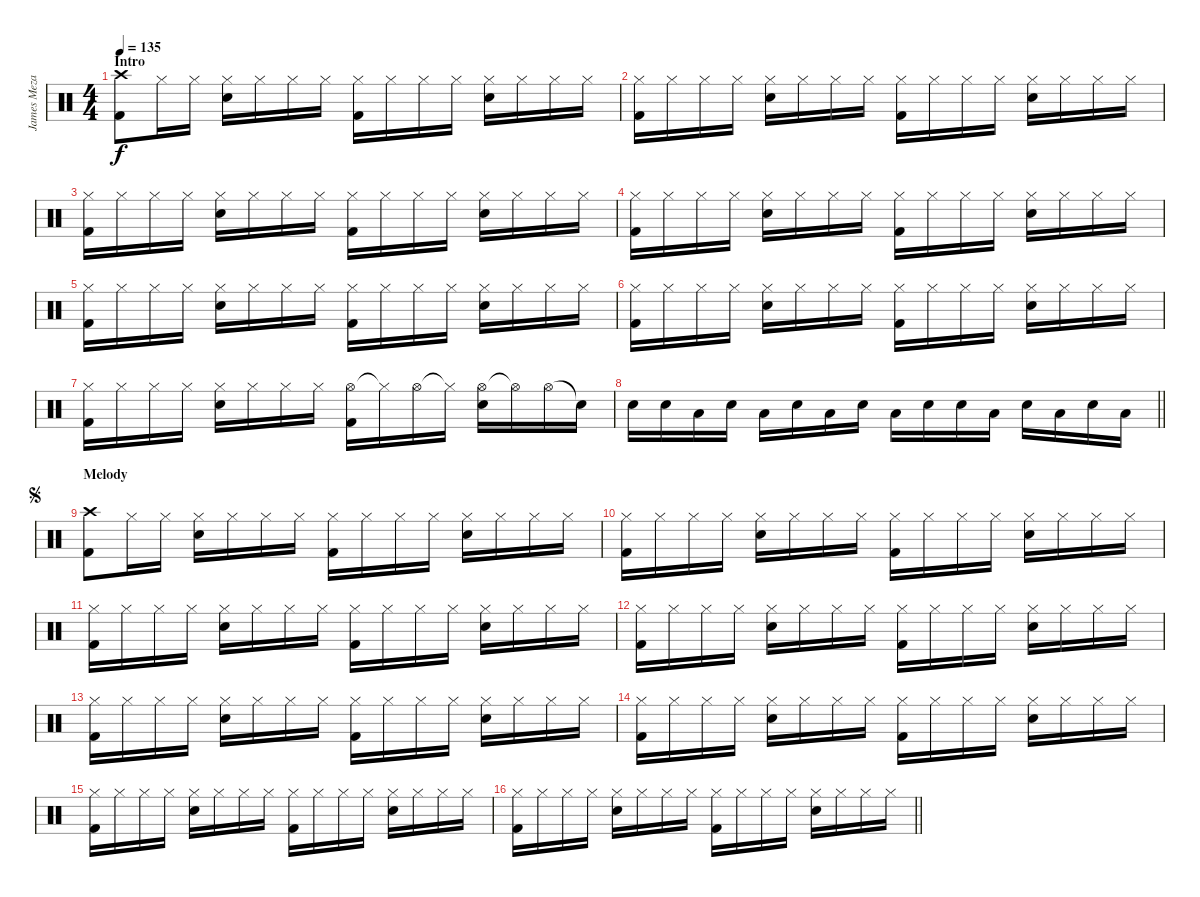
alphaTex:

\track ("James Meza - Drums" "James Meza") {instrument percussion}
\staff {score}
\articulation defaults
\ts (4 4)
\section ("" "Intro")
\tempo 135
\clef neutral
\ks c
("Crash high (hit)" "Kick (hit) 2").8{dy f} "Hi-Hat (closed)".16 "Hi-Hat (closed)".16 ("Hi-Hat (closed)" "Electric Snare (hit)").16 "Hi-Hat (closed)".16 "Hi-Hat (closed)".16 "Hi-Hat (closed)".16 ("Hi-Hat (closed)" "Kick (hit) 2").16 "Hi-Hat (closed)".16 "Hi-Hat (closed)".16 "Hi-Hat (closed)".16 ("Hi-Hat (closed)" "Electric Snare (hit)").16 "Hi-Hat (closed)".16 "Hi-Hat (closed)".16 "Hi-Hat (closed)".16 |
("Hi-Hat (closed)" "Kick (hit) 2").16 "Hi-Hat (closed)".16 "Hi-Hat (closed)".16 "Hi-Hat (closed)".16 ("Hi-Hat (closed)" "Electric Snare (hit)").16 "Hi-Hat (closed)".16 "Hi-Hat (closed)".16 "Hi-Hat (closed)".16 ("Hi-Hat (closed)" "Kick (hit) 2").16 "Hi-Hat (closed)".16 "Hi-Hat (closed)".16 "Hi-Hat (closed)".16 ("Hi-Hat (closed)" "Electric Snare (hit)").16 "Hi-Hat (closed)".16 "Hi-Hat (closed)".16 "Hi-Hat (closed)".16 |
("Hi-Hat (closed)" "Kick (hit) 2").16 "Hi-Hat (closed)".16 "Hi-Hat (closed)".16 "Hi-Hat (closed)".16 ("Hi-Hat (closed)" "Electric Snare (hit)").16 "Hi-Hat (closed)".16 "Hi-Hat (closed)".16 "Hi-Hat (closed)".16 ("Hi-Hat (closed)" "Kick (hit) 2").16 "Hi-Hat (closed)".16 "Hi-Hat (closed)".16 "Hi-Hat (closed)".16 ("Hi-Hat (closed)" "Electric Snare (hit)").16 "Hi-Hat (closed)".16 "Hi-Hat (closed)".16 "Hi-Hat (closed)".16 |
("Hi-Hat (closed)" "Kick (hit) 2").16 "Hi-Hat (closed)".16 "Hi-Hat (closed)".16 "Hi-Hat (closed)".16 ("Hi-Hat (closed)" "Electric Snare (hit)").16 "Hi-Hat (closed)".16 "Hi-Hat (closed)".16 "Hi-Hat (closed)".16 ("Hi-Hat (closed)" "Kick (hit) 2").16 "Hi-Hat (closed)".16 "Hi-Hat (closed)".16 "Hi-Hat (closed)".16 ("Hi-Hat (closed)" "Electric Snare (hit)").16 "Hi-Hat (closed)".16 "Hi-Hat (closed)".16 "Hi-Hat (closed)".16 |
("Hi-Hat (closed)" "Kick (hit) 2").16 "Hi-Hat (closed)".16 "Hi-Hat (closed)".16 "Hi-Hat (closed)".16 ("Hi-Hat (closed)" "Electric Snare (hit)").16 "Hi-Hat (closed)".16 "Hi-Hat (closed)".16 "Hi-Hat (closed)".16 ("Hi-Hat (closed)" "Kick (hit) 2").16 "Hi-Hat (closed)".16 "Hi-Hat (closed)".16 "Hi-Hat (closed)".16 ("Hi-Hat (closed)" "Electric Snare (hit)").16 "Hi-Hat (closed)".16 "Hi-Hat (closed)".16 "Hi-Hat (closed)".16 |
("Hi-Hat (closed)" "Kick (hit) 2").16 "Hi-Hat (closed)".16 "Hi-Hat (closed)".16 "Hi-Hat (closed)".16 ("Hi-Hat (closed)" "Electric Snare (hit)").16 "Hi-Hat (closed)".16 "Hi-Hat (closed)".16 "Hi-Hat (closed)".16 ("Hi-Hat (closed)" "Kick (hit) 2").16 "Hi-Hat (closed)".16 "Hi-Hat (closed)".16 "Hi-Hat (closed)".16 ("Hi-Hat (closed)" "Electric Snare (hit)").16 "Hi-Hat (closed)".16 "Hi-Hat (closed)".16 "Hi-Hat (closed)".16 |
("Hi-Hat (closed)" "Kick (hit) 2").16 "Hi-Hat (closed)".16 "Hi-Hat (closed)".16 "Hi-Hat (closed)".16 ("Hi-Hat (closed)" "Electric Snare (hit)").16 "Hi-Hat (closed)".16 "Hi-Hat (closed)".16 "Hi-Hat (closed)".16 ("Hi-Hat (open)" "Kick (hit) 2").16 "Hi-Hat (closed)"{t}.16 "Hi-Hat (open)".16 "Hi-Hat (closed)"{t}.16 ("Hi-Hat (open)" "Electric Snare (hit)").16 "Hi-Hat (open)"{t}.16 "Hi-Hat (open)".16 "Snare (hit)"{t}.16 |
\barLineRight lightlight "Electric Snare (hit)".16 "Electric Snare (hit)".16 "Low Tom (hit)".16 "Electric Snare (hit)".16 "Low Tom (hit)".16 "Electric Snare (hit)".16 "Low Tom (hit)".16 "Electric Snare (hit)".16 "Low Tom (hit)".16 "Electric Snare (hit)".16 "Electric Snare (hit)".16 "Low Tom (hit)".16 "Electric Snare (hit)".16 "Low Tom (hit)".16 "Electric Snare (hit)".16 "Low Tom (hit)".16
|
\section ("" "Melody")
\jump segno
("Crash high (hit)" "Kick (hit) 2").8 "Hi-Hat (closed)".16 "Hi-Hat (closed)".16 ("Hi-Hat (closed)" "Electric Snare (hit)").16 "Hi-Hat (closed)".16 "Hi-Hat (closed)".16 "Hi-Hat (closed)".16 ("Hi-Hat (closed)" "Kick (hit) 2").16 "Hi-Hat (closed)".16 "Hi-Hat (closed)".16 "Hi-Hat (closed)".16 ("Hi-Hat (closed)" "Electric Snare (hit)").16 "Hi-Hat (closed)".16 "Hi-Hat (closed)".16 "Hi-Hat (closed)".16 |
("Hi-Hat (closed)" "Kick (hit) 2").16 "Hi-Hat (closed)".16 "Hi-Hat (closed)".16 "Hi-Hat (closed)".16 ("Hi-Hat (closed)" "Electric Snare (hit)").16 "Hi-Hat (closed)".16 "Hi-Hat (closed)".16 "Hi-Hat (closed)".16 ("Hi-Hat (closed)" "Kick (hit) 2").16 "Hi-Hat (closed)".16 "Hi-Hat (closed)".16 "Hi-Hat (closed)".16 ("Hi-Hat (closed)" "Electric Snare (hit)").16 "Hi-Hat (closed)".16 "Hi-Hat (closed)".16 "Hi-Hat (closed)".16 |
("Hi-Hat (closed)" "Kick (hit) 2").16 "Hi-Hat (closed)".16 "Hi-Hat (closed)".16 "Hi-Hat (closed)".16 ("Hi-Hat (closed)" "Electric Snare (hit)").16 "Hi-Hat (closed)".16 "Hi-Hat (closed)".16 "Hi-Hat (closed)".16 ("Hi-Hat (closed)" "Kick (hit) 2").16 "Hi-Hat (closed)".16 "Hi-Hat (closed)".16 "Hi-Hat (closed)".16 ("Hi-Hat (closed)" "Electric Snare (hit)").16 "Hi-Hat (closed)".16 "Hi-Hat (closed)".16 "Hi-Hat (closed)".16 |
("Hi-Hat (closed)" "Kick (hit) 2").16 "Hi-Hat (closed)".16 "Hi-Hat (closed)".16 "Hi-Hat (closed)".16 ("Hi-Hat (closed)" "Electric Snare (hit)").16 "Hi-Hat (closed)".16 "Hi-Hat (closed)".16 "Hi-Hat (closed)".16 ("Hi-Hat (closed)" "Kick (hit) 2").16 "Hi-Hat (closed)".16 "Hi-Hat (closed)".16 "Hi-Hat (closed)".16 ("Hi-Hat (closed)" "Electric Snare (hit)").16 "Hi-Hat (closed)".16 "Hi-Hat (closed)".16 "Hi-Hat (closed)".16 |
("Hi-Hat (closed)" "Kick (hit) 2").16 "Hi-Hat (closed)".16 "Hi-Hat (closed)".16 "Hi-Hat (closed)".16 ("Hi-Hat (closed)" "Electric Snare (hit)").16 "Hi-Hat (closed)".16 "Hi-Hat (closed)".16 "Hi-Hat (closed)".16 ("Hi-Hat (closed)" "Kick (hit) 2").16 "Hi-Hat (closed)".16 "Hi-Hat (closed)".16 "Hi-Hat (closed)".16 ("Hi-Hat (closed)" "Electric Snare (hit)").16 "Hi-Hat (closed)".16 "Hi-Hat (closed)".16 "Hi-Hat (closed)".16 |
("Hi-Hat (closed)" "Kick (hit) 2").16 "Hi-Hat (closed)".16 "Hi-Hat (closed)".16 "Hi-Hat (closed)".16 ("Hi-Hat (closed)" "Electric Snare (hit)").16 "Hi-Hat (closed)".16 "Hi-Hat (closed)".16 "Hi-Hat (closed)".16 ("Hi-Hat (closed)" "Kick (hit) 2").16 "Hi-Hat (closed)".16 "Hi-Hat (closed)".16 "Hi-Hat (closed)".16 ("Hi-Hat (closed)" "Electric Snare (hit)").16 "Hi-Hat (closed)".16 "Hi-Hat (closed)".16 "Hi-Hat (closed)".16 |
("Hi-Hat (closed)" "Kick (hit) 2").16 "Hi-Hat (closed)".16 "Hi-Hat (closed)".16 "Hi-Hat (closed)".16 ("Hi-Hat (closed)" "Electric Snare (hit)").16 "Hi-Hat (closed)".16 "Hi-Hat (closed)".16 "Hi-Hat (closed)".16 ("Hi-Hat (closed)" "Kick (hit) 2").16 "Hi-Hat (closed)".16 "Hi-Hat (closed)".16 "Hi-Hat (closed)".16 ("Hi-Hat (closed)" "Electric Snare (hit)").16 "Hi-Hat (closed)".16 "Hi-Hat (closed)".16 "Hi-Hat (closed)".16 |
\barLineRight lightlight
("Hi-Hat (closed)" "Kick (hit) 2").16 "Hi-Hat (closed)".16 "Hi-Hat (closed)".16 "Hi-Hat (closed)".16 ("Hi-Hat (closed)" "Electric Snare (hit)").16 "Hi-Hat (closed)".16 "Hi-Hat (closed)".16 "Hi-Hat (closed)".16 ("Hi-Hat (closed)" "Kick (hit) 2").16 "Hi-Hat (closed)".16 "Hi-Hat (closed)".16 "Hi-Hat (closed)".16 ("Hi-Hat (closed)" "Electric Snare (hit)").16 "Hi-Hat (closed)".16 "Hi-Hat (closed)".16 "Hi-Hat (closed)".16
